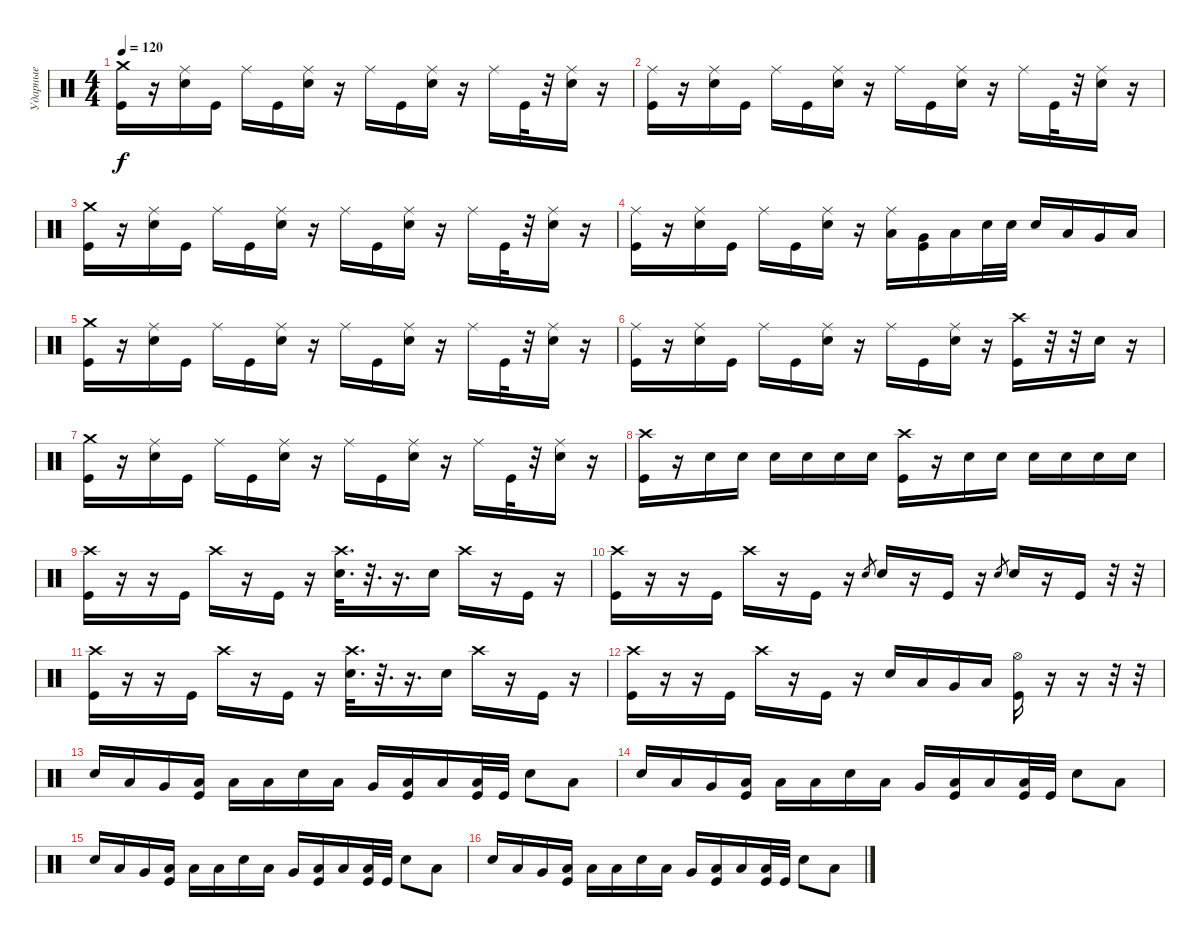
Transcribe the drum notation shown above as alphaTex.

\track ("Ударные" "Ударные") {solo instrument percussion}
\staff {score}
\articulation defaults
\ts (4 4)
\tempo 120
\clef neutral
\ks c
("Crash medium (hit)" "Kick (hit)").16{dy f} r.16 ("Ride (middle)" "Snare (hit) 2").16 "Kick (hit)".16 "Ride (middle)".16 "Kick (hit)".16 ("Ride (middle)" "Snare (hit) 2").16 r.16 "Ride (middle)".16 "Kick (hit)".16 ("Ride (middle)" "Snare (hit) 2").16 r.16 "Ride (middle)".16 "Kick (hit)".32 r.32 ("Ride (middle)" "Snare (hit) 2").16 r.16 |
("Ride (middle)" "Kick (hit)").16 r.16 ("Ride (middle)" "Snare (hit) 2").16 "Kick (hit)".16 "Ride (middle)".16 "Kick (hit)".16 ("Ride (middle)" "Snare (hit) 2").16 r.16 "Ride (middle)".16 "Kick (hit)".16 ("Ride (middle)" "Snare (hit) 2").16 r.16 "Ride (middle)".16 "Kick (hit)".32 r.32 ("Ride (middle)" "Snare (hit) 2").16 r.16 |
("Crash medium (hit)" "Kick (hit)").16 r.16 ("Ride (middle)" "Snare (hit) 2").16 "Kick (hit)".16 "Ride (middle)".16 "Kick (hit)".16 ("Ride (middle)" "Snare (hit) 2").16 r.16 "Ride (middle)".16 "Kick (hit)".16 ("Ride (middle)" "Snare (hit) 2").16 r.16 "Ride (middle)".16 "Kick (hit)".32 r.32 ("Ride (middle)" "Snare (hit) 2").16 r.16 |
("Ride (middle)" "Kick (hit)").16 r.16 ("Ride (middle)" "Snare (hit) 2").16 "Kick (hit)".16 "Ride (middle)".16 "Kick (hit)".16 ("Ride (middle)" "Snare (hit) 2").16 r.16 ("Ride (middle)" "Low Tom (hit)").16 ("Very Low Tom (hit)" "Kick (hit)").16 "Low Floor Tom (hit)".16 "Snare (hit) 2".32 "Snare (hit) 2".32 "Snare (hit) 2".16 "Low Tom (hit)".16 "Very Low Tom (hit)".16 "Low Floor Tom (hit)".16 |
("Crash medium (hit)" "Kick (hit)").16 r.16 ("Ride (middle)" "Snare (hit) 2").16 "Kick (hit)".16 "Ride (middle)".16 "Kick (hit)".16 ("Ride (middle)" "Snare (hit) 2").16 r.16 "Ride (middle)".16 "Kick (hit)".16 ("Ride (middle)" "Snare (hit) 2").16 r.16 "Ride (middle)".16 "Kick (hit)".32 r.32 ("Ride (middle)" "Snare (hit) 2").16 r.16 |
("Ride (middle)" "Kick (hit)").16 r.16 ("Ride (middle)" "Snare (hit) 2").16 "Kick (hit)".16 "Ride (middle)".16 "Kick (hit)".16 ("Ride (middle)" "Snare (hit) 2").16 r.16 "Ride (middle)".16 "Kick (hit)".16 ("Ride (middle)" "Snare (hit) 2").16 r.16 ("Crash high (hit)" "Kick (hit)").16 r.32 r.32 "Snare (hit) 2".16 r.16 |
("Crash medium (hit)" "Kick (hit)").16 r.16 ("Ride (middle)" "Snare (hit) 2").16 "Kick (hit)".16 "Ride (middle)".16 "Kick (hit)".16 ("Ride (middle)" "Snare (hit) 2").16 r.16 "Ride (middle)".16 "Kick (hit)".16 ("Ride (middle)" "Snare (hit) 2").16 r.16 "Ride (middle)".16 "Kick (hit)".32 r.32 ("Ride (middle)" "Snare (hit) 2").16 r.16 |
("Crash high (hit)" "Kick (hit)").16 r.16 "Snare (hit) 2".16 "Snare (hit) 2".16 "Snare (hit) 2".16 "Snare (hit) 2".16 "Snare (hit) 2".16 "Snare (hit) 2".16 ("Crash high (hit)" "Kick (hit)").16 r.16 "Snare (hit) 2".16 "Snare (hit) 2".16 "Snare (hit) 2".16 "Snare (hit) 2".16 "Snare (hit) 2".16 "Snare (hit) 2".16 |
("Crash high (hit)" "Kick (hit)").16 r.16 r.16 "Kick (hit)".16 "Crash high (hit)".16 r.16 "Kick (hit)".16 r.16 ("Crash high (hit)" "Snare (hit) 2").32{d} r.32{d} r.16{d} "Snare (hit) 2".16 "Crash high (hit)".16 r.16 "Kick (hit)".16 r.16 |
("Crash high (hit)" "Kick (hit)").16 r.16 r.16 "Kick (hit)".16 "Crash high (hit)".16 r.16 "Kick (hit)".16 r.16 "Snare (hit) 2".8{gr} "Snare (hit) 2".16 r.16 "Kick (hit)".16 r.16 "Snare (hit) 2".8{gr} "Snare (hit) 2".16 r.16 "Kick (hit)".16 r.32 r.32 |
("Crash high (hit)" "Kick (hit)").16 r.16 r.16 "Kick (hit)".16 "Crash high (hit)".16 r.16 "Kick (hit)".16 r.16 ("Crash high (hit)" "Snare (hit) 2").32{d} r.32{d} r.16{d} "Snare (hit) 2".16 "Crash high (hit)".16 r.16 "Kick (hit)".16 r.16 |
("Crash high (hit)" "Kick (hit)").16 r.16 r.16 "Kick (hit)".16 "Crash high (hit)".16 r.16 "Kick (hit)".16 r.16 "Snare (hit) 2".16 "Low Tom (hit)".16 "Very Low Tom (hit)".16 "Low Floor Tom (hit)".16 ("Hi-Hat (open)" "Kick (hit)").16 r.16 r.16 r.32 r.32 |
"Snare (hit) 2".16 "Low Tom (hit)".16 "Very Low Tom (hit)".16 ("Low Floor Tom (hit)" "Kick (hit)").16 "Low Floor Tom (hit)".16 "Low Floor Tom (hit)".16 "Snare (hit) 2".16 "Low Tom (hit)".16 "Very Low Tom (hit)".16 ("Low Floor Tom (hit)" "Kick (hit)").16 "Low Floor Tom (hit)".16 ("Low Floor Tom (hit)" "Kick (hit)").32 "Kick (hit)".32 "Snare (hit) 2".8 "Low Floor Tom (hit)".8 |
"Snare (hit) 2".16 "Low Tom (hit)".16 "Very Low Tom (hit)".16 ("Low Floor Tom (hit)" "Kick (hit)").16 "Low Floor Tom (hit)".16 "Low Floor Tom (hit)".16 "Snare (hit) 2".16 "Low Tom (hit)".16 "Very Low Tom (hit)".16 ("Low Floor Tom (hit)" "Kick (hit)").16 "Low Floor Tom (hit)".16 ("Low Floor Tom (hit)" "Kick (hit)").32 "Kick (hit)".32 "Snare (hit) 2".8 "Low Floor Tom (hit)".8 |
"Snare (hit) 2".16 "Low Tom (hit)".16 "Very Low Tom (hit)".16 ("Low Floor Tom (hit)" "Kick (hit)").16 "Low Floor Tom (hit)".16 "Low Floor Tom (hit)".16 "Snare (hit) 2".16 "Low Tom (hit)".16 "Very Low Tom (hit)".16 ("Low Floor Tom (hit)" "Kick (hit)").16 "Low Floor Tom (hit)".16 ("Low Floor Tom (hit)" "Kick (hit)").32 "Kick (hit)".32 "Snare (hit) 2".8 "Low Floor Tom (hit)".8 |
"Snare (hit) 2".16 "Low Tom (hit)".16 "Very Low Tom (hit)".16 ("Low Floor Tom (hit)" "Kick (hit)").16 "Low Floor Tom (hit)".16 "Low Floor Tom (hit)".16 "Snare (hit) 2".16 "Low Tom (hit)".16 "Very Low Tom (hit)".16 ("Low Floor Tom (hit)" "Kick (hit)").16 "Low Floor Tom (hit)".16 ("Low Floor Tom (hit)" "Kick (hit)").32 "Kick (hit)".32 "Snare (hit) 2".8 "Low Floor Tom (hit)".8
